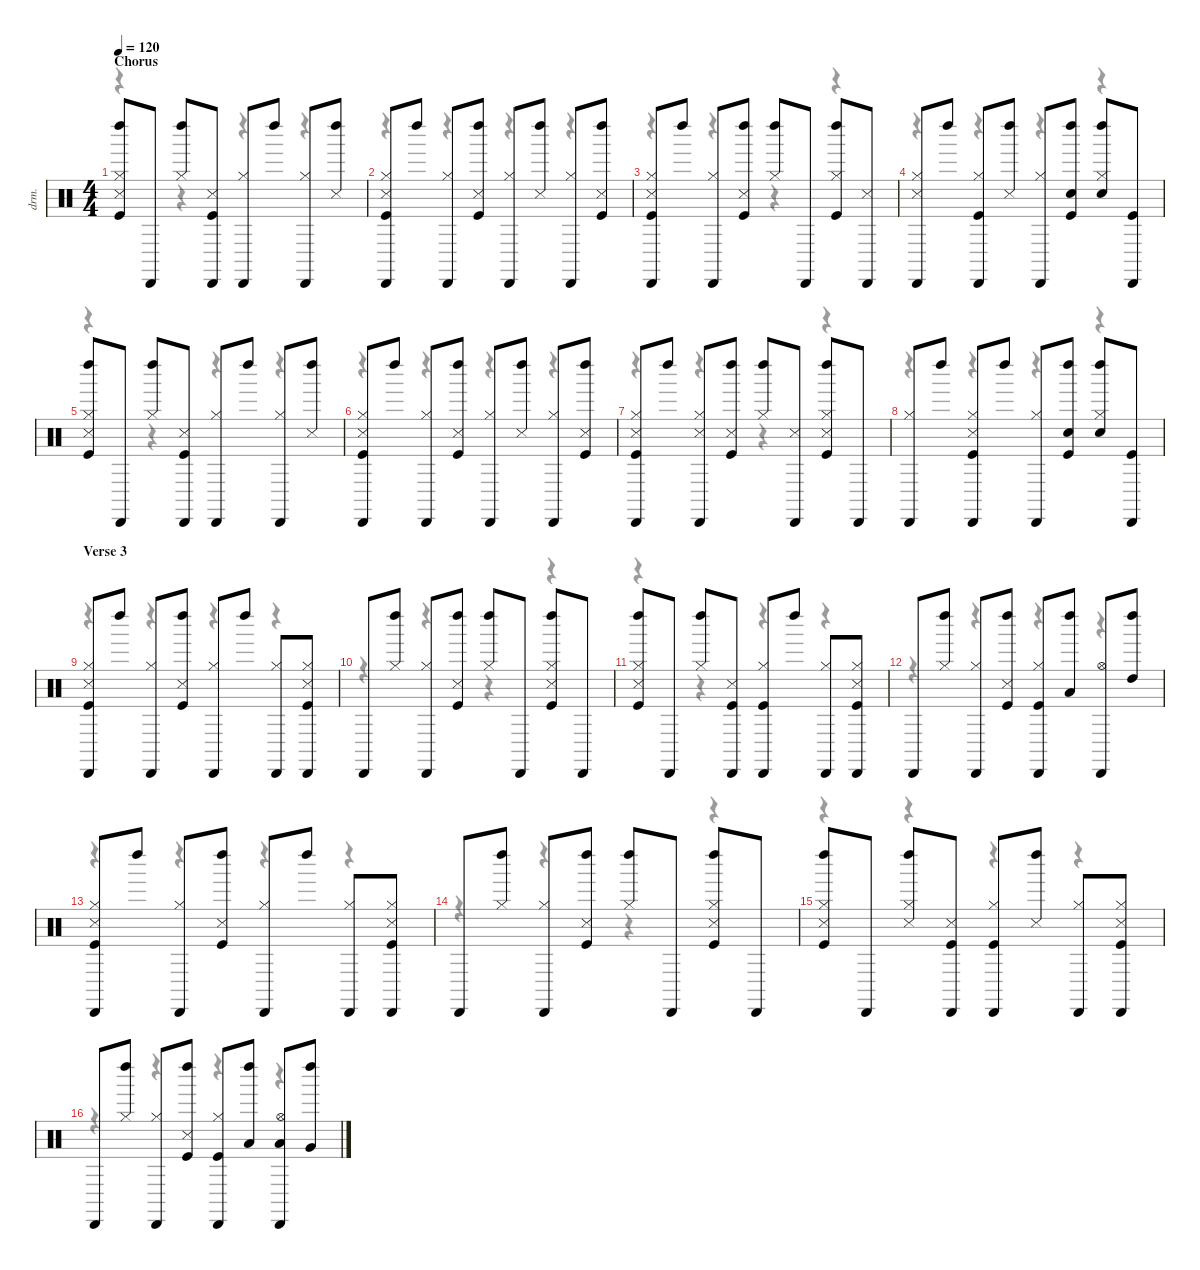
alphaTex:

\defaultSystemsLayout 4
\hideDynamics
\bracketExtendMode nobrackets
\track ("Drums" "drm.") {instrument percussion}
\staff {score}
\articulation defaults
\voice
\ts (4 4)
\section ("" "Chorus")
\tempo 120
\clef neutral
\ks c
("Hi-Hat (closed)" "Left Maraca (hit)" "Kick (hit)" "Snare (side stick) 3").8{dy ff} "Cabasa (hit)".8{dy f} ("Left Maraca (hit)" "Hi-Hat (closed)").8 ("Cabasa (hit)" "Snare (side stick) 3" "Kick (hit)").8 ("Cabasa (hit)" "Hi-Hat (closed)").8 "Left Maraca (hit)".8 ("Hi-Hat (closed)" "Cabasa (hit)").8{dy ff} ("Left Maraca (hit)" "Snare (side stick) 3").8 |
("Hi-Hat (closed)" "Snare (side stick) 3" "Kick (hit)" "Cabasa (hit)").8 "Left Maraca (hit)".8{dy f} ("Hi-Hat (closed)" "Cabasa (hit)").8{dy ff} ("Kick (hit)" "Left Maraca (hit)" "Snare (side stick) 3").8{dy f} ("Hi-Hat (closed)" "Cabasa (hit)").8{dy ff} ("Left Maraca (hit)" "Snare (side stick) 3").8{dy f} ("Hi-Hat (closed)" "Cabasa (hit)").8{dy ff} ("Left Maraca (hit)" "Kick (hit)" "Snare (side stick) 3").8 |
("Hi-Hat (closed)" "Cabasa (hit)" "Snare (side stick) 3" "Kick (hit)").8 "Left Maraca (hit)".8{dy f} ("Hi-Hat (closed)" "Cabasa (hit)").8{dy ff} ("Left Maraca (hit)" "Snare (side stick) 3" "Kick (hit)").8 ("Hi-Hat (closed)" "Left Maraca (hit)").8 "Cabasa (hit)".8{dy f} ("Hi-Hat (closed)" "Left Maraca (hit)" "Kick (hit)").8{dy ff} ("Cabasa (hit)" "Snare (side stick) 3").8 |
("Snare (side stick) 3" "Hi-Hat (closed)" "Cabasa (hit)").8 "Left Maraca (hit)".8 ("Kick (hit)" "Cabasa (hit)" "Hi-Hat (closed)").8 ("Left Maraca (hit)" "Snare (side stick) 3").8 ("Hi-Hat (closed)" "Cabasa (hit)").8{dy fff} ("Snare (hit) 2" "Left Maraca (hit)" "Kick (hit)").8{dy mf} ("Snare (hit) 2" "Hi-Hat (closed)" "Left Maraca (hit)").8 ("Cabasa (hit)" "Kick (hit)").8{dy ff} |
("Hi-Hat (closed)" "Left Maraca (hit)" "Kick (hit)" "Snare (side stick) 3").8 "Cabasa (hit)".8{dy f} ("Left Maraca (hit)" "Hi-Hat (closed)").8 ("Cabasa (hit)" "Snare (side stick) 3" "Kick (hit)").8 ("Cabasa (hit)" "Hi-Hat (closed)").8 "Left Maraca (hit)".8 ("Hi-Hat (closed)" "Cabasa (hit)").8{dy ff} ("Left Maraca (hit)" "Snare (side stick) 3").8 |
("Hi-Hat (closed)" "Snare (side stick) 3" "Kick (hit)" "Cabasa (hit)").8 "Left Maraca (hit)".8{dy f} ("Hi-Hat (closed)" "Cabasa (hit)").8{dy ff} ("Kick (hit)" "Left Maraca (hit)" "Snare (side stick) 3").8{dy f} ("Hi-Hat (closed)" "Cabasa (hit)").8{dy ff} ("Left Maraca (hit)" "Snare (side stick) 3").8{dy f} ("Hi-Hat (closed)" "Cabasa (hit)").8{dy ff} ("Left Maraca (hit)" "Kick (hit)" "Snare (side stick) 3").8 |
("Hi-Hat (closed)" "Cabasa (hit)" "Snare (side stick) 3" "Kick (hit)").8 "Left Maraca (hit)".8{dy f} ("Hi-Hat (closed)" "Cabasa (hit)" "Snare (side stick) 3").8{dy ff} ("Left Maraca (hit)" "Snare (side stick) 3" "Kick (hit)").8 ("Hi-Hat (closed)" "Left Maraca (hit)").8 ("Cabasa (hit)" "Snare (side stick) 3").8{dy f} ("Hi-Hat (closed)" "Left Maraca (hit)" "Kick (hit)" "Snare (side stick) 3").8{dy ff} "Cabasa (hit)".8 |
("Hi-Hat (closed)" "Cabasa (hit)").8 "Left Maraca (hit)".8 ("Kick (hit)" "Cabasa (hit)" "Hi-Hat (closed)" "Snare (side stick) 3").8 "Left Maraca (hit)".8 ("Hi-Hat (closed)" "Cabasa (hit)").8{dy fff} ("Snare (hit) 2" "Left Maraca (hit)" "Kick (hit)").8{dy mf} ("Snare (hit) 2" "Hi-Hat (closed)" "Left Maraca (hit)").8 ("Cabasa (hit)" "Kick (hit)").8{dy ff} |
\section ("" "Verse 3")
("Hi-Hat (closed)" "Snare (side stick) 3" "Kick (hit)" "Cabasa (hit)").8 "Left Maraca (hit)".8{dy f} ("Hi-Hat (closed)" "Cabasa (hit)").8{dy ff} ("Kick (hit)" "Left Maraca (hit)" "Snare (side stick) 3").8{dy f} ("Hi-Hat (closed)" "Cabasa (hit)").8{dy ff} "Left Maraca (hit)".8{dy f} ("Hi-Hat (closed)" "Cabasa (hit)").8{dy ff} ("Hi-Hat (closed)" "Cabasa (hit)" "Snare (side stick) 3" "Kick (hit)").8 |
"Cabasa (hit)".8 ("Left Maraca (hit)" "Hi-Hat (closed)").8 ("Hi-Hat (closed)" "Cabasa (hit)").8 ("Left Maraca (hit)" "Snare (side stick) 3" "Kick (hit)").8 ("Hi-Hat (closed)" "Left Maraca (hit)").8 "Cabasa (hit)".8{dy f} ("Hi-Hat (closed)" "Left Maraca (hit)" "Kick (hit)" "Snare (side stick) 3").8{dy ff} "Cabasa (hit)".8 |
("Hi-Hat (closed)" "Left Maraca (hit)" "Kick (hit)" "Snare (side stick) 3").8 "Cabasa (hit)".8{dy f} ("Left Maraca (hit)" "Hi-Hat (closed)").8 ("Cabasa (hit)" "Snare (side stick) 3" "Kick (hit)").8 ("Cabasa (hit)" "Kick (hit)" "Hi-Hat (closed)").8 "Left Maraca (hit)".8 ("Hi-Hat (closed)" "Cabasa (hit)").8{dy ff} ("Kick (hit)" "Hi-Hat (closed)" "Cabasa (hit)" "Snare (side stick) 3").8 |
"Cabasa (hit)".8 ("Left Maraca (hit)" "Hi-Hat (closed)").8 ("Cabasa (hit)" "Hi-Hat (closed)").8 ("Snare (side stick) 3" "Kick (hit)" "Left Maraca (hit)").8 ("Cabasa (hit)" "Kick (hit)" "Hi-Hat (closed)").8 ("Low Tom (hit)" "Left Maraca (hit)").8 ("Cabasa (hit)" "Hi-Hat (open)").8 ("High Tom (hit)" "Left Maraca (hit)").8 |
("Hi-Hat (closed)" "Snare (side stick) 3" "Kick (hit)" "Cabasa (hit)").8 "Left Maraca (hit)".8{dy f} ("Hi-Hat (closed)" "Cabasa (hit)").8{dy ff} ("Kick (hit)" "Left Maraca (hit)" "Snare (side stick) 3").8{dy f} ("Hi-Hat (closed)" "Cabasa (hit)").8{dy ff} "Left Maraca (hit)".8{dy f} ("Hi-Hat (closed)" "Cabasa (hit)").8{dy ff} ("Hi-Hat (closed)" "Cabasa (hit)" "Snare (side stick) 3" "Kick (hit)").8 |
"Cabasa (hit)".8 ("Left Maraca (hit)" "Hi-Hat (closed)").8 ("Hi-Hat (closed)" "Cabasa (hit)").8 ("Left Maraca (hit)" "Snare (side stick) 3" "Kick (hit)").8 ("Hi-Hat (closed)" "Left Maraca (hit)").8 "Cabasa (hit)".8{dy f} ("Hi-Hat (closed)" "Left Maraca (hit)" "Kick (hit)" "Snare (side stick) 3").8{dy ff} "Cabasa (hit)".8 |
("Hi-Hat (closed)" "Left Maraca (hit)" "Kick (hit)" "Snare (side stick) 3").8 "Cabasa (hit)".8{dy f} ("Left Maraca (hit)" "Hi-Hat (closed)" "Snare (side stick) 3").8 ("Cabasa (hit)" "Snare (side stick) 3" "Kick (hit)").8 ("Cabasa (hit)" "Kick (hit)" "Hi-Hat (closed)").8 ("Left Maraca (hit)" "Snare (side stick) 3").8 ("Hi-Hat (closed)" "Cabasa (hit)").8{dy ff} ("Kick (hit)" "Hi-Hat (closed)" "Cabasa (hit)" "Snare (side stick) 3").8 |
"Cabasa (hit)".8 ("Left Maraca (hit)" "Hi-Hat (closed)").8 ("Cabasa (hit)" "Hi-Hat (closed)").8 ("Snare (side stick) 3" "Kick (hit)" "Left Maraca (hit)").8 ("Cabasa (hit)" "Kick (hit)" "Hi-Hat (closed)").8 ("Low Tom (hit)" "Left Maraca (hit)").8 ("Cabasa (hit)" "Hi-Hat (open)" "Low Tom (hit)").8 ("Very Low Tom (hit)" "Left Maraca (hit)").8{dy f}
\voice
\clef neutral
\ottava regular
\simile none
\ks c
r.4{dy mf} r.4 r.4 r.4 |
r.4 r.4 r.4 r.4 |
r.4 r.4 r.4 r.4 |
r.4 r.4 r.4 r.4 |
r.4 r.4 r.4 r.4 |
r.4 r.4 r.4 r.4 |
r.4 r.4 r.4 r.4 |
r.4 r.4 r.4 r.4 |
r.4 r.4 r.4 r.4 |
r.4 r.4 r.4 r.4 |
r.4 r.4 r.4 r.4 |
r.4 r.4 r.4 r.4 |
r.4 r.4 r.4 r.4 |
r.4 r.4 r.4 r.4 |
r.4 r.4 r.4 r.4 |
r.4 r.4 r.4 r.4
